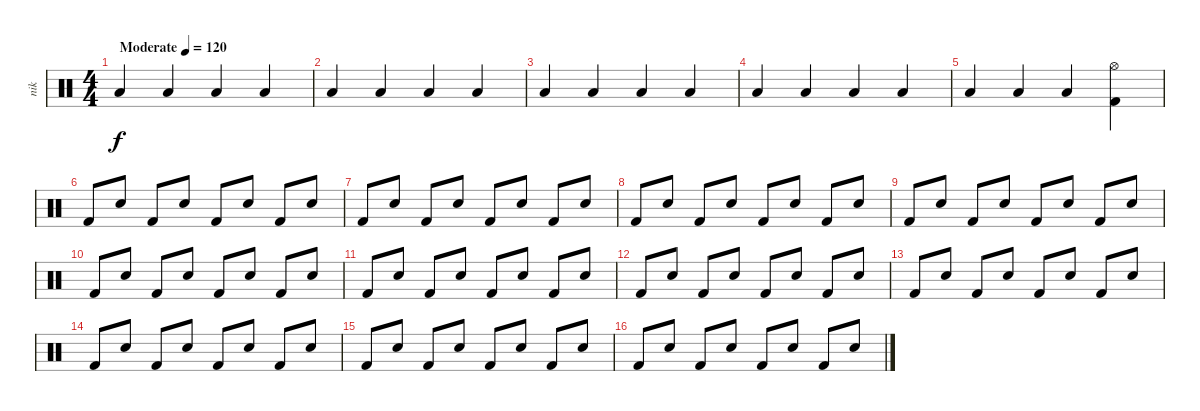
\track ("nik" "nik") {instrument percussion}
\staff {score}
\articulation defaults
\ts (4 4)
\tempo (120 "Moderate")
\tempo 150
\tempo (120 "Moderate")
\clef neutral
\ks c "Low Floor Tom (hit)".4{dy f} "Low Floor Tom (hit)".4 "Low Floor Tom (hit)".4 "Low Floor Tom (hit)".4
|
"Low Floor Tom (hit)".4 "Low Floor Tom (hit)".4 "Low Floor Tom (hit)".4 "Low Floor Tom (hit)".4 |
"Low Floor Tom (hit)".4 "Low Floor Tom (hit)".4 "Low Floor Tom (hit)".4 "Low Floor Tom (hit)".4 |
"Low Floor Tom (hit)".4 "Low Floor Tom (hit)".4 "Low Floor Tom (hit)".4 "Low Floor Tom (hit)".4 |
"Low Floor Tom (hit)".4 "Low Floor Tom (hit)".4 "Low Floor Tom (hit)".4 ("Kick (hit) 2" "Hi-Hat (open)").4 |
"Kick (hit) 2".8 "Electric Snare (hit)".8 "Kick (hit) 2".8 "Electric Snare (hit)".8 "Kick (hit) 2".8 "Electric Snare (hit)".8 "Kick (hit) 2".8 "Electric Snare (hit)".8 |
"Kick (hit) 2".8 "Electric Snare (hit)".8 "Kick (hit) 2".8 "Electric Snare (hit)".8 "Kick (hit) 2".8 "Electric Snare (hit)".8 "Kick (hit) 2".8 "Electric Snare (hit)".8 |
"Kick (hit) 2".8 "Electric Snare (hit)".8 "Kick (hit) 2".8 "Electric Snare (hit)".8 "Kick (hit) 2".8 "Electric Snare (hit)".8 "Kick (hit) 2".8 "Electric Snare (hit)".8 |
"Kick (hit) 2".8 "Electric Snare (hit)".8 "Kick (hit) 2".8 "Electric Snare (hit)".8 "Kick (hit) 2".8 "Electric Snare (hit)".8 "Kick (hit) 2".8 "Electric Snare (hit)".8 |
"Kick (hit) 2".8 "Electric Snare (hit)".8 "Kick (hit) 2".8 "Electric Snare (hit)".8 "Kick (hit) 2".8 "Electric Snare (hit)".8 "Kick (hit) 2".8 "Electric Snare (hit)".8 |
"Kick (hit) 2".8 "Electric Snare (hit)".8 "Kick (hit) 2".8 "Electric Snare (hit)".8 "Kick (hit) 2".8 "Electric Snare (hit)".8 "Kick (hit) 2".8 "Electric Snare (hit)".8 |
"Kick (hit) 2".8 "Electric Snare (hit)".8 "Kick (hit) 2".8 "Electric Snare (hit)".8 "Kick (hit) 2".8 "Electric Snare (hit)".8 "Kick (hit) 2".8 "Electric Snare (hit)".8 |
"Kick (hit) 2".8 "Electric Snare (hit)".8 "Kick (hit) 2".8 "Electric Snare (hit)".8 "Kick (hit) 2".8 "Electric Snare (hit)".8 "Kick (hit) 2".8 "Electric Snare (hit)".8 |
"Kick (hit) 2".8 "Electric Snare (hit)".8 "Kick (hit) 2".8 "Electric Snare (hit)".8 "Kick (hit) 2".8 "Electric Snare (hit)".8 "Kick (hit) 2".8 "Electric Snare (hit)".8 |
"Kick (hit) 2".8 "Electric Snare (hit)".8 "Kick (hit) 2".8 "Electric Snare (hit)".8 "Kick (hit) 2".8 "Electric Snare (hit)".8 "Kick (hit) 2".8 "Electric Snare (hit)".8 |
"Kick (hit) 2".8 "Electric Snare (hit)".8 "Kick (hit) 2".8 "Electric Snare (hit)".8 "Kick (hit) 2".8 "Electric Snare (hit)".8 "Kick (hit) 2".8 "Electric Snare (hit)".8
